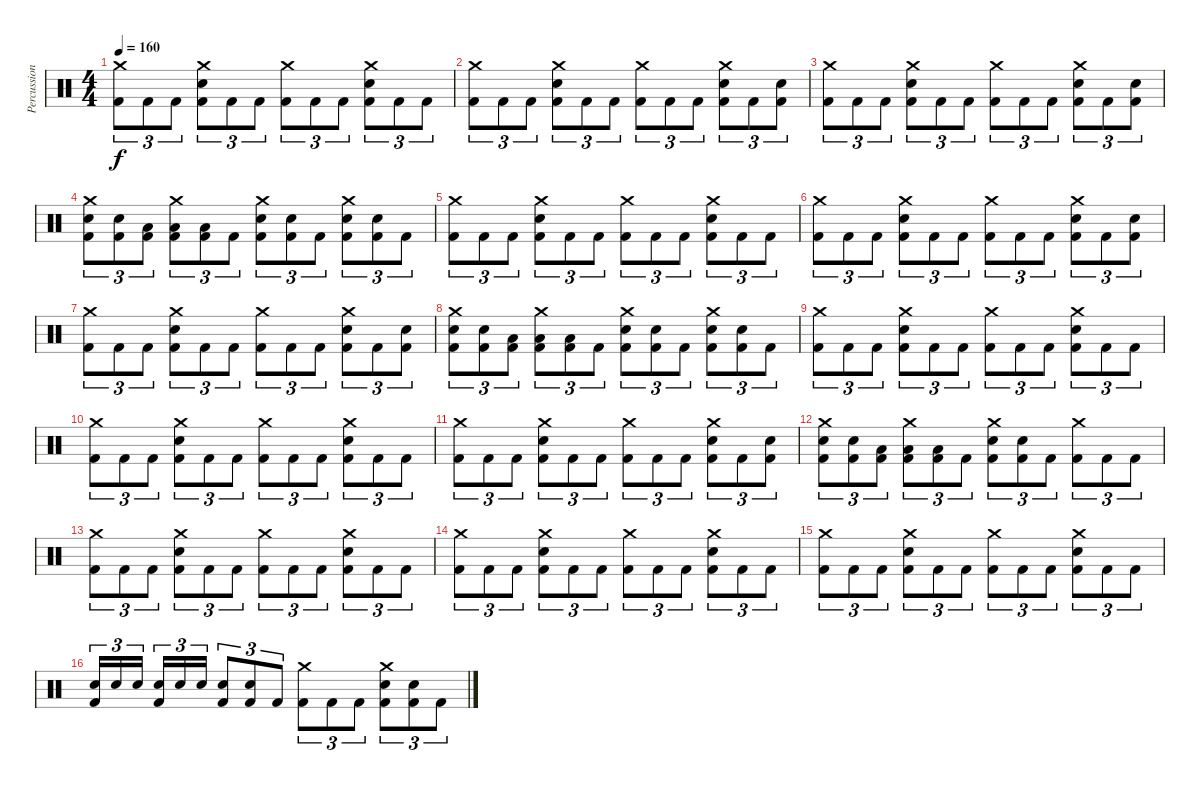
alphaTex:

\track ("Percussion" "Percussion") {instrument percussion}
\staff {score}
\articulation defaults
\ts (4 4)
\tempo 160
\clef neutral
\ks c
("Crash medium (hit)" "Kick (hit) 2").8{tu (3 2) dy f} "Kick (hit) 2".8{tu (3 2)} "Kick (hit) 2".8{tu (3 2)} ("Crash medium (hit)" "Electric Snare (hit)" "Kick (hit) 2").8{tu (3 2)} "Kick (hit) 2".8{tu (3 2)} "Kick (hit) 2".8{tu (3 2)} ("Crash medium (hit)" "Kick (hit) 2").8{tu (3 2)} "Kick (hit) 2".8{tu (3 2)} "Kick (hit) 2".8{tu (3 2)} ("Crash medium (hit)" "Electric Snare (hit)" "Kick (hit) 2").8{tu (3 2)} "Kick (hit) 2".8{tu (3 2)} "Kick (hit) 2".8{tu (3 2)} |
("Crash medium (hit)" "Kick (hit) 2").8{tu (3 2)} "Kick (hit) 2".8{tu (3 2)} "Kick (hit) 2".8{tu (3 2)} ("Crash medium (hit)" "Electric Snare (hit)" "Kick (hit) 2").8{tu (3 2)} "Kick (hit) 2".8{tu (3 2)} "Kick (hit) 2".8{tu (3 2)} ("Crash medium (hit)" "Kick (hit) 2").8{tu (3 2)} "Kick (hit) 2".8{tu (3 2)} "Kick (hit) 2".8{tu (3 2)} ("Crash medium (hit)" "Electric Snare (hit)" "Kick (hit) 2").8{tu (3 2)} "Kick (hit) 2".8{tu (3 2)} ("Electric Snare (hit)" "Kick (hit) 2").8{tu (3 2)} |
("Crash medium (hit)" "Kick (hit) 2").8{tu (3 2)} "Kick (hit) 2".8{tu (3 2)} "Kick (hit) 2".8{tu (3 2)} ("Crash medium (hit)" "Electric Snare (hit)" "Kick (hit) 2").8{tu (3 2)} "Kick (hit) 2".8{tu (3 2)} "Kick (hit) 2".8{tu (3 2)} ("Crash medium (hit)" "Kick (hit) 2").8{tu (3 2)} "Kick (hit) 2".8{tu (3 2)} "Kick (hit) 2".8{tu (3 2)} ("Crash medium (hit)" "Electric Snare (hit)" "Kick (hit) 2").8{tu (3 2)} "Kick (hit) 2".8{tu (3 2)} ("Electric Snare (hit)" "Kick (hit) 2").8{tu (3 2)} |
("Crash medium (hit)" "Electric Snare (hit)" "Kick (hit) 2").8{tu (3 2)} ("Electric Snare (hit)" "Kick (hit) 2").8{tu (3 2)} ("Low Tom (hit)" "Kick (hit) 2").8{tu (3 2)} ("Crash medium (hit)" "Low Tom (hit)" "Kick (hit) 2").8{tu (3 2)} ("Low Tom (hit)" "Kick (hit) 2").8{tu (3 2)} "Kick (hit) 2".8{tu (3 2)} ("Crash medium (hit)" "Electric Snare (hit)" "Kick (hit) 2").8{tu (3 2)} ("Electric Snare (hit)" "Kick (hit) 2").8{tu (3 2)} "Kick (hit) 2".8{tu (3 2)} ("Crash medium (hit)" "Electric Snare (hit)" "Kick (hit) 2").8{tu (3 2)} ("Electric Snare (hit)" "Kick (hit) 2").8{tu (3 2)} "Kick (hit) 2".8{tu (3 2)} |
("Crash medium (hit)" "Kick (hit) 2").8{tu (3 2)} "Kick (hit) 2".8{tu (3 2)} "Kick (hit) 2".8{tu (3 2)} ("Crash medium (hit)" "Electric Snare (hit)" "Kick (hit) 2").8{tu (3 2)} "Kick (hit) 2".8{tu (3 2)} "Kick (hit) 2".8{tu (3 2)} ("Crash medium (hit)" "Kick (hit) 2").8{tu (3 2)} "Kick (hit) 2".8{tu (3 2)} "Kick (hit) 2".8{tu (3 2)} ("Crash medium (hit)" "Electric Snare (hit)" "Kick (hit) 2").8{tu (3 2)} "Kick (hit) 2".8{tu (3 2)} "Kick (hit) 2".8{tu (3 2)} |
("Crash medium (hit)" "Kick (hit) 2").8{tu (3 2)} "Kick (hit) 2".8{tu (3 2)} "Kick (hit) 2".8{tu (3 2)} ("Crash medium (hit)" "Electric Snare (hit)" "Kick (hit) 2").8{tu (3 2)} "Kick (hit) 2".8{tu (3 2)} "Kick (hit) 2".8{tu (3 2)} ("Crash medium (hit)" "Kick (hit) 2").8{tu (3 2)} "Kick (hit) 2".8{tu (3 2)} "Kick (hit) 2".8{tu (3 2)} ("Crash medium (hit)" "Electric Snare (hit)" "Kick (hit) 2").8{tu (3 2)} "Kick (hit) 2".8{tu (3 2)} ("Electric Snare (hit)" "Kick (hit) 2").8{tu (3 2)} |
("Crash medium (hit)" "Kick (hit) 2").8{tu (3 2)} "Kick (hit) 2".8{tu (3 2)} "Kick (hit) 2".8{tu (3 2)} ("Crash medium (hit)" "Electric Snare (hit)" "Kick (hit) 2").8{tu (3 2)} "Kick (hit) 2".8{tu (3 2)} "Kick (hit) 2".8{tu (3 2)} ("Crash medium (hit)" "Kick (hit) 2").8{tu (3 2)} "Kick (hit) 2".8{tu (3 2)} "Kick (hit) 2".8{tu (3 2)} ("Crash medium (hit)" "Electric Snare (hit)" "Kick (hit) 2").8{tu (3 2)} "Kick (hit) 2".8{tu (3 2)} ("Electric Snare (hit)" "Kick (hit) 2").8{tu (3 2)} |
("Crash medium (hit)" "Electric Snare (hit)" "Kick (hit) 2").8{tu (3 2)} ("Electric Snare (hit)" "Kick (hit) 2").8{tu (3 2)} ("Low Tom (hit)" "Kick (hit) 2").8{tu (3 2)} ("Crash medium (hit)" "Low Tom (hit)" "Kick (hit) 2").8{tu (3 2)} ("Low Tom (hit)" "Kick (hit) 2").8{tu (3 2)} "Kick (hit) 2".8{tu (3 2)} ("Crash medium (hit)" "Electric Snare (hit)" "Kick (hit) 2").8{tu (3 2)} ("Electric Snare (hit)" "Kick (hit) 2").8{tu (3 2)} "Kick (hit) 2".8{tu (3 2)} ("Crash medium (hit)" "Electric Snare (hit)" "Kick (hit) 2").8{tu (3 2)} ("Electric Snare (hit)" "Kick (hit) 2").8{tu (3 2)} "Kick (hit) 2".8{tu (3 2)} |
("Crash medium (hit)" "Kick (hit) 2").8{tu (3 2)} "Kick (hit) 2".8{tu (3 2)} "Kick (hit) 2".8{tu (3 2)} ("Crash medium (hit)" "Electric Snare (hit)" "Kick (hit) 2").8{tu (3 2)} "Kick (hit) 2".8{tu (3 2)} "Kick (hit) 2".8{tu (3 2)} ("Crash medium (hit)" "Kick (hit) 2").8{tu (3 2)} "Kick (hit) 2".8{tu (3 2)} "Kick (hit) 2".8{tu (3 2)} ("Crash medium (hit)" "Electric Snare (hit)" "Kick (hit) 2").8{tu (3 2)} "Kick (hit) 2".8{tu (3 2)} "Kick (hit) 2".8{tu (3 2)} |
("Crash medium (hit)" "Kick (hit) 2").8{tu (3 2)} "Kick (hit) 2".8{tu (3 2)} "Kick (hit) 2".8{tu (3 2)} ("Crash medium (hit)" "Electric Snare (hit)" "Kick (hit) 2").8{tu (3 2)} "Kick (hit) 2".8{tu (3 2)} "Kick (hit) 2".8{tu (3 2)} ("Crash medium (hit)" "Kick (hit) 2").8{tu (3 2)} "Kick (hit) 2".8{tu (3 2)} "Kick (hit) 2".8{tu (3 2)} ("Crash medium (hit)" "Electric Snare (hit)" "Kick (hit) 2").8{tu (3 2)} "Kick (hit) 2".8{tu (3 2)} "Kick (hit) 2".8{tu (3 2)} |
("Crash medium (hit)" "Kick (hit) 2").8{tu (3 2)} "Kick (hit) 2".8{tu (3 2)} "Kick (hit) 2".8{tu (3 2)} ("Crash medium (hit)" "Electric Snare (hit)" "Kick (hit) 2").8{tu (3 2)} "Kick (hit) 2".8{tu (3 2)} "Kick (hit) 2".8{tu (3 2)} ("Crash medium (hit)" "Kick (hit) 2").8{tu (3 2)} "Kick (hit) 2".8{tu (3 2)} "Kick (hit) 2".8{tu (3 2)} ("Crash medium (hit)" "Electric Snare (hit)" "Kick (hit) 2").8{tu (3 2)} "Kick (hit) 2".8{tu (3 2)} ("Electric Snare (hit)" "Kick (hit) 2").8{tu (3 2)} |
("Crash medium (hit)" "Electric Snare (hit)" "Kick (hit) 2").8{tu (3 2)} ("Electric Snare (hit)" "Kick (hit) 2").8{tu (3 2)} ("Low Tom (hit)" "Kick (hit) 2").8{tu (3 2)} ("Crash medium (hit)" "Low Tom (hit)" "Kick (hit) 2").8{tu (3 2)} ("Low Tom (hit)" "Kick (hit) 2").8{tu (3 2)} "Kick (hit) 2".8{tu (3 2)} ("Crash medium (hit)" "Electric Snare (hit)" "Kick (hit) 2").8{tu (3 2)} ("Electric Snare (hit)" "Kick (hit) 2").8{tu (3 2)} "Kick (hit) 2".8{tu (3 2)} ("Crash medium (hit)" "Kick (hit) 2").8{tu (3 2)} "Kick (hit) 2".8{tu (3 2)} "Kick (hit) 2".8{tu (3 2)} |
("Crash medium (hit)" "Kick (hit) 2").8{tu (3 2)} "Kick (hit) 2".8{tu (3 2)} "Kick (hit) 2".8{tu (3 2)} ("Crash medium (hit)" "Electric Snare (hit)" "Kick (hit) 2").8{tu (3 2)} "Kick (hit) 2".8{tu (3 2)} "Kick (hit) 2".8{tu (3 2)} ("Crash medium (hit)" "Kick (hit) 2").8{tu (3 2)} "Kick (hit) 2".8{tu (3 2)} "Kick (hit) 2".8{tu (3 2)} ("Crash medium (hit)" "Electric Snare (hit)" "Kick (hit) 2").8{tu (3 2)} "Kick (hit) 2".8{tu (3 2)} "Kick (hit) 2".8{tu (3 2)} |
("Crash medium (hit)" "Kick (hit) 2").8{tu (3 2)} "Kick (hit) 2".8{tu (3 2)} "Kick (hit) 2".8{tu (3 2)} ("Crash medium (hit)" "Electric Snare (hit)" "Kick (hit) 2").8{tu (3 2)} "Kick (hit) 2".8{tu (3 2)} "Kick (hit) 2".8{tu (3 2)} ("Crash medium (hit)" "Kick (hit) 2").8{tu (3 2)} "Kick (hit) 2".8{tu (3 2)} "Kick (hit) 2".8{tu (3 2)} ("Crash medium (hit)" "Electric Snare (hit)" "Kick (hit) 2").8{tu (3 2)} "Kick (hit) 2".8{tu (3 2)} "Kick (hit) 2".8{tu (3 2)} |
("Crash medium (hit)" "Kick (hit) 2").8{tu (3 2)} "Kick (hit) 2".8{tu (3 2)} "Kick (hit) 2".8{tu (3 2)} ("Crash medium (hit)" "Electric Snare (hit)" "Kick (hit) 2").8{tu (3 2)} "Kick (hit) 2".8{tu (3 2)} "Kick (hit) 2".8{tu (3 2)} ("Crash medium (hit)" "Kick (hit) 2").8{tu (3 2)} "Kick (hit) 2".8{tu (3 2)} "Kick (hit) 2".8{tu (3 2)} ("Crash medium (hit)" "Electric Snare (hit)" "Kick (hit) 2").8{tu (3 2)} "Kick (hit) 2".8{tu (3 2)} "Kick (hit) 2".8{tu (3 2)} |
("Electric Snare (hit)" "Kick (hit) 2").16{tu (3 2)} "Electric Snare (hit)".16{tu (3 2)} "Electric Snare (hit)".16{tu (3 2) beam splitsecondary} ("Electric Snare (hit)" "Kick (hit) 2").16{tu (3 2)} "Electric Snare (hit)".16{tu (3 2)} "Electric Snare (hit)".16{tu (3 2)} ("Electric Snare (hit)" "Kick (hit) 2").8{tu (3 2)} ("Electric Snare (hit)" "Kick (hit) 2").8{tu (3 2)} "Kick (hit) 2".8{tu (3 2)} ("Crash medium (hit)" "Kick (hit) 2").8{tu (3 2)} "Kick (hit) 2".8{tu (3 2)} "Kick (hit) 2".8{tu (3 2)} ("Crash medium (hit)" "Electric Snare (hit)" "Kick (hit) 2").8{tu (3 2)} ("Electric Snare (hit)" "Kick (hit) 2").8{tu (3 2)} "Kick (hit) 2".8{tu (3 2)}
